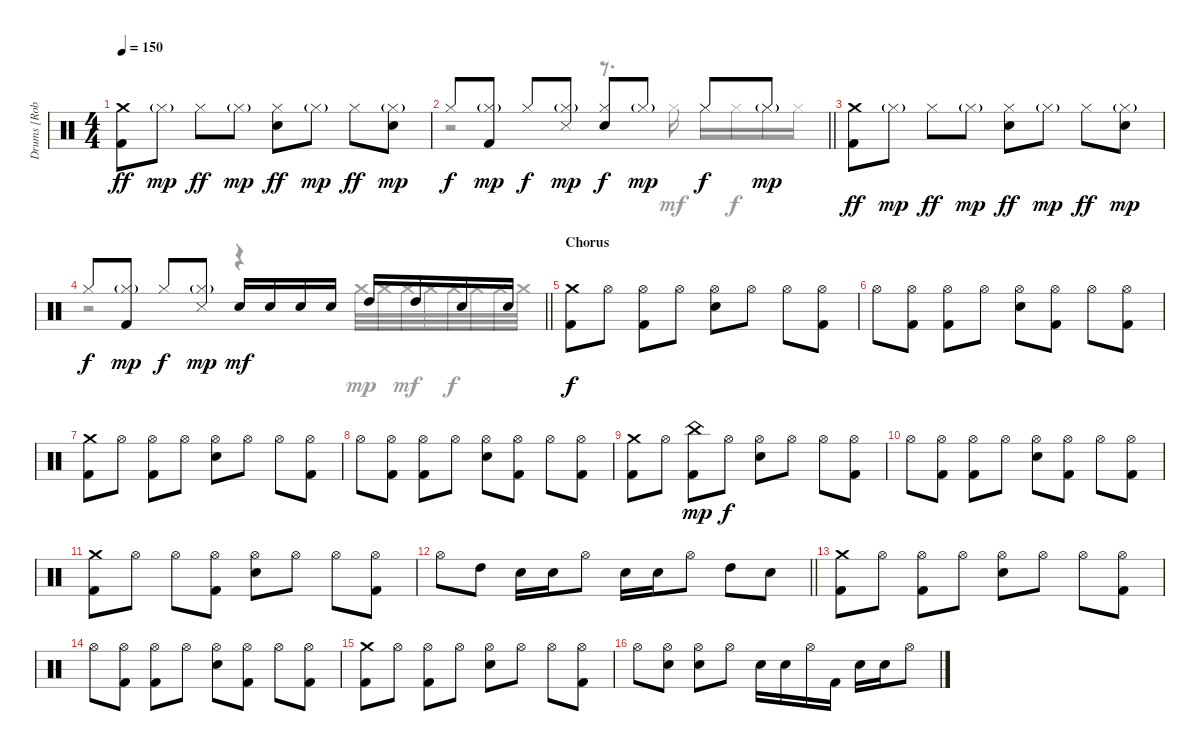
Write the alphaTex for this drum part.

\track ("Drums [Rob Bourdon]" "Drums [Rob") {instrument percussion}
\staff {score}
\articulation defaults
\voice
\ts (4 4)
\tempo 150
\clef neutral
\ks c
("Crash medium (hit)" "Kick (hit) 2").8{dy ff} "Hi-Hat (closed)"{g}.8{dy mp} "Hi-Hat (closed)".8{dy ff} "Hi-Hat (closed)"{g}.8{dy mp} ("Hi-Hat (closed)" "Electric Snare (hit)").8{dy ff} "Hi-Hat (closed)"{g}.8{dy mp} "Hi-Hat (closed)".8{dy ff} ("Hi-Hat (closed)"{g} "Snare (hit) 2").8{dy mp} |
\barLineRight lightlight "Hi-Hat (closed)".8{dy f}
("Hi-Hat (closed)"{g} "Kick (hit) 2").8{dy mp} "Hi-Hat (closed)".8{dy f} ("Hi-Hat (closed)"{g} "Snare (side stick) 3").8{dy mp} ("Hi-Hat (closed)" "Snare (hit) 2").8{dy f} "Hi-Hat (closed)"{g}.8{dy mp} "Hi-Hat (closed)".8{dy f} "Hi-Hat (closed)"{g}.8{dy mp} |
("Crash medium (hit)" "Kick (hit) 2").8{dy ff} "Hi-Hat (closed)"{g}.8{dy mp} "Hi-Hat (closed)".8{dy ff} "Hi-Hat (closed)"{g}.8{dy mp} ("Hi-Hat (closed)" "Electric Snare (hit)").8{dy ff} "Hi-Hat (closed)"{g}.8{dy mp} "Hi-Hat (closed)".8{dy ff} ("Hi-Hat (closed)"{g} "Snare (hit) 2").8{dy mp} |
\barLineRight lightlight "Hi-Hat (closed)".8{dy f}
("Hi-Hat (closed)"{g} "Kick (hit) 2").8{dy mp} "Hi-Hat (closed)".8{dy f} ("Hi-Hat (closed)"{g} "Snare (side stick) 3").8{dy mp} "Snare (hit) 2".16{dy mf} "Snare (hit) 2".16 "Snare (hit) 2".16 "Snare (hit) 2".16 "High Tom (hit)".16 "High Tom (hit)".16 "Snare (hit) 2".16 "Snare (hit) 2".16 |
\section ("" "Chorus")
("Crash medium (hit)" "Kick (hit) 2").8{dy f} "Hi-Hat (open)".8 ("Hi-Hat (open)" "Kick (hit) 2").8 "Hi-Hat (open)".8 ("Hi-Hat (open)" "Snare (hit) 2").8 "Hi-Hat (open)".8 "Hi-Hat (open)".8 ("Hi-Hat (open)" "Kick (hit) 2").8 |
"Hi-Hat (open)".8 ("Hi-Hat (open)" "Kick (hit) 2").8 ("Hi-Hat (open)" "Kick (hit) 2").8 "Hi-Hat (open)".8 ("Hi-Hat (open)" "Snare (hit) 2").8 ("Hi-Hat (open)" "Kick (hit) 2").8 "Hi-Hat (open)".8 ("Hi-Hat (open)" "Kick (hit) 2").8 |
("Crash medium (hit)" "Kick (hit) 2").8 "Hi-Hat (open)".8 ("Hi-Hat (open)" "Kick (hit) 2").8 "Hi-Hat (open)".8 ("Hi-Hat (open)" "Snare (hit) 2").8 "Hi-Hat (open)".8 "Hi-Hat (open)".8 ("Hi-Hat (open)" "Kick (hit) 2").8 |
"Hi-Hat (open)".8 ("Hi-Hat (open)" "Kick (hit) 2").8 ("Hi-Hat (open)" "Kick (hit) 2").8 "Hi-Hat (open)".8 ("Hi-Hat (open)" "Snare (hit) 2").8 ("Hi-Hat (open)" "Kick (hit) 2").8 "Hi-Hat (open)".8 ("Hi-Hat (open)" "Kick (hit) 2").8 |
("Crash medium (hit)" "Kick (hit) 2").8 "Hi-Hat (open)".8 ("China (hit)" "Kick (hit) 2").8{dy mp} "Hi-Hat (open)".8{dy f} ("Hi-Hat (open)" "Snare (hit) 2").8 "Hi-Hat (open)".8 "Hi-Hat (open)".8 ("Hi-Hat (open)" "Kick (hit) 2").8 |
"Hi-Hat (open)".8 ("Hi-Hat (open)" "Kick (hit) 2").8 ("Hi-Hat (open)" "Kick (hit) 2").8 "Hi-Hat (open)".8 ("Hi-Hat (open)" "Snare (hit) 2").8 ("Hi-Hat (open)" "Kick (hit) 2").8 "Hi-Hat (open)".8 ("Hi-Hat (open)" "Kick (hit) 2").8 |
("Crash medium (hit)" "Kick (hit) 2").8 "Hi-Hat (open)".8 "Hi-Hat (open)".8 ("Hi-Hat (open)" "Kick (hit) 2").8 ("Hi-Hat (open)" "Snare (hit) 2").8 "Hi-Hat (open)".8 "Hi-Hat (open)".8 ("Hi-Hat (open)" "Kick (hit) 2").8 |
\barLineRight lightlight "Hi-Hat (open)".8 "High Tom (hit)".8 "Snare (hit) 2".16 "Snare (hit) 2".16 "Hi-Hat (open)".8 "Snare (hit) 2".16 "Snare (hit) 2".16 "Hi-Hat (open)".8 "High Tom (hit)".8 "Snare (hit) 2".8
|
("Crash medium (hit)" "Kick (hit) 2").8 "Hi-Hat (open)".8 ("Hi-Hat (open)" "Kick (hit) 2").8 "Hi-Hat (open)".8 ("Hi-Hat (open)" "Snare (hit) 2").8 "Hi-Hat (open)".8 "Hi-Hat (open)".8 ("Hi-Hat (open)" "Kick (hit) 2").8 |
"Hi-Hat (open)".8 ("Hi-Hat (open)" "Kick (hit) 2").8 ("Hi-Hat (open)" "Kick (hit) 2").8 "Hi-Hat (open)".8 ("Hi-Hat (open)" "Snare (hit) 2").8 ("Hi-Hat (open)" "Kick (hit) 2").8 "Hi-Hat (open)".8 ("Hi-Hat (open)" "Kick (hit) 2").8 |
("Crash medium (hit)" "Kick (hit) 2").8 "Hi-Hat (open)".8 ("Hi-Hat (open)" "Kick (hit) 2").8 "Hi-Hat (open)".8 ("Hi-Hat (open)" "Snare (hit) 2").8 "Hi-Hat (open)".8 "Hi-Hat (open)".8 ("Hi-Hat (open)" "Kick (hit) 2").8 |
"Hi-Hat (open)".8 ("Hi-Hat (open)" "Snare (hit) 2").8 ("Hi-Hat (open)" "Snare (hit) 2").8 "Hi-Hat (open)".8 "Snare (hit) 2".16 "Snare (hit) 2".16 "Hi-Hat (open)".16 "Kick (hit) 2".16 "Snare (hit) 2".16 "Snare (hit) 2".16 "Hi-Hat (open)".8
\voice
\clef neutral
\ottava regular
\simile none
\ks c
|
\barLineRight lightlight
r.2 r.8{d} "Hi-Hat (closed)".16{dy mf} "Hi-Hat (closed)".16 "Hi-Hat (closed)".16{dy f} "Hi-Hat (closed)".16 "Hi-Hat (closed)".16 |
|
\barLineRight lightlight
r.2 r.4 "Crash medium (hit)".32{dy mp} "Crash medium (hit)".32 "Crash medium (hit)".32{dy mf} "Crash medium (hit)".32 "Crash medium (hit)".32{dy f} "Crash medium (hit)".32 "Crash medium (hit)".32 "Crash medium (hit)".32 |
|
|
|
|
|
|
|
\barLineRight lightlight
|
|
|
|
